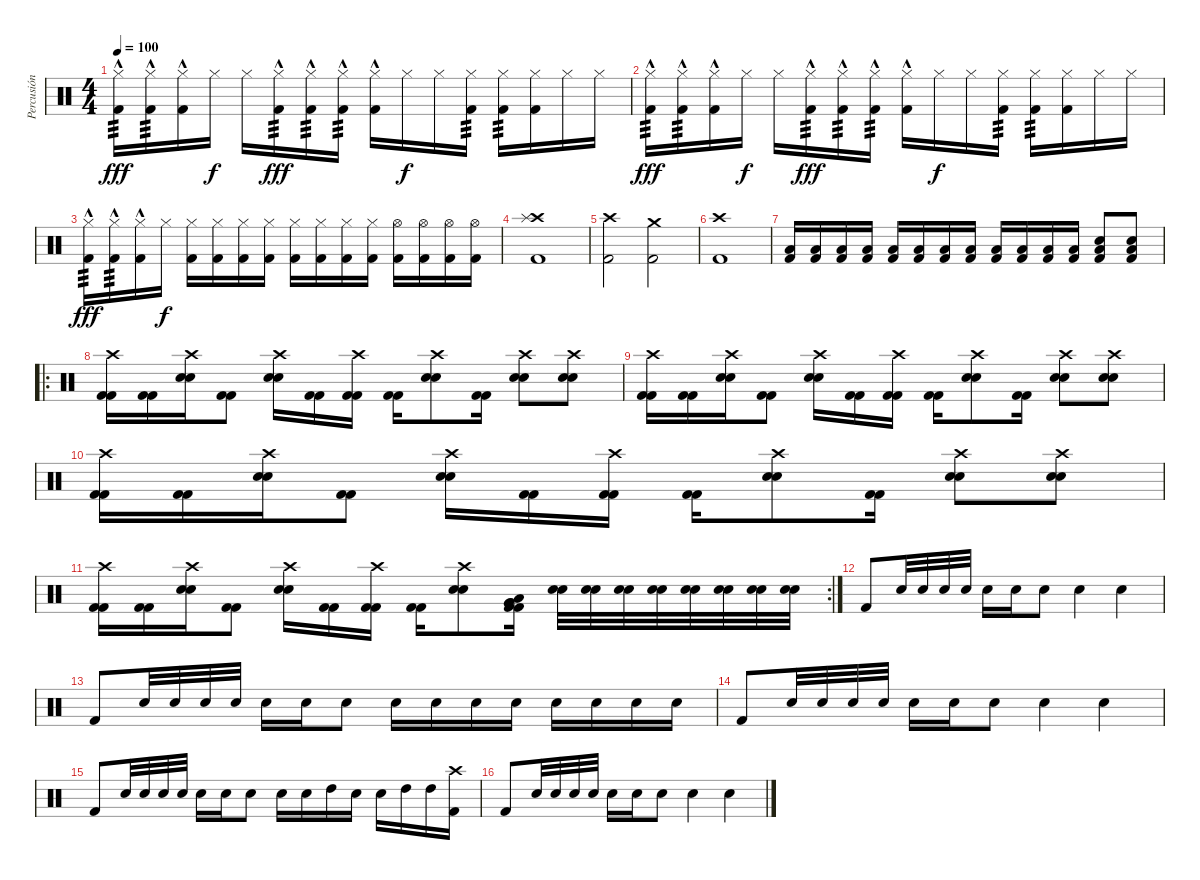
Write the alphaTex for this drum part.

\track ("Percusión" "Percusión") {instrument percussion}
\staff {score}
\articulation defaults
\ts (4 4)
\tempo 100
\clef neutral
\ks c
("Hi-Hat (closed)" "Kick (hit) 2"{hac}).16{tp 3 dy fff} ("Hi-Hat (closed)" "Kick (hit) 2"{hac}).16{tp 3} ("Hi-Hat (closed)" "Kick (hit) 2"{hac}).16 "Hi-Hat (closed)".16{dy f} "Hi-Hat (closed)".16 ("Hi-Hat (closed)" "Kick (hit) 2"{hac}).16{tp 3 dy fff} ("Hi-Hat (closed)" "Kick (hit) 2"{hac}).16{tp 3} ("Hi-Hat (closed)" "Kick (hit) 2"{hac}).16{tp 3} ("Hi-Hat (closed)" "Kick (hit) 2"{hac}).16 "Hi-Hat (closed)".16{dy f} "Hi-Hat (closed)".16 ("Hi-Hat (closed)" "Kick (hit) 2").16{tp 3} ("Hi-Hat (closed)" "Kick (hit) 2").16{tp 3} ("Hi-Hat (closed)" "Kick (hit) 2").16 "Hi-Hat (closed)".16 "Hi-Hat (closed)".16 |
("Hi-Hat (closed)" "Kick (hit) 2"{hac}).16{tp 3 dy fff} ("Hi-Hat (closed)" "Kick (hit) 2"{hac}).16{tp 3} ("Hi-Hat (closed)" "Kick (hit) 2"{hac}).16 "Hi-Hat (closed)".16{dy f} "Hi-Hat (closed)".16 ("Hi-Hat (closed)" "Kick (hit) 2"{hac}).16{tp 3 dy fff} ("Hi-Hat (closed)" "Kick (hit) 2"{hac}).16{tp 3} ("Hi-Hat (closed)" "Kick (hit) 2"{hac}).16{tp 3} ("Hi-Hat (closed)" "Kick (hit) 2"{hac}).16 "Hi-Hat (closed)".16{dy f} "Hi-Hat (closed)".16 ("Hi-Hat (closed)" "Kick (hit) 2").16{tp 3} ("Hi-Hat (closed)" "Kick (hit) 2").16{tp 3} ("Hi-Hat (closed)" "Kick (hit) 2").16 "Hi-Hat (closed)".16 "Hi-Hat (closed)".16 |
("Hi-Hat (closed)" "Kick (hit) 2"{hac}).16{tp 3 dy fff} ("Hi-Hat (closed)" "Kick (hit) 2"{hac}).16{tp 3} ("Hi-Hat (closed)" "Kick (hit) 2"{hac}).16 "Hi-Hat (closed)".16{dy f} ("Hi-Hat (closed)" "Kick (hit) 2").16 ("Hi-Hat (closed)" "Kick (hit) 2").16 ("Hi-Hat (closed)" "Kick (hit) 2").16 ("Hi-Hat (closed)" "Kick (hit) 2").16 ("Hi-Hat (closed)" "Kick (hit) 2").16 ("Hi-Hat (closed)" "Kick (hit) 2").16 ("Hi-Hat (closed)" "Kick (hit) 2").16 ("Hi-Hat (closed)" "Kick (hit) 2").16 ("Hi-Hat (open)" "Kick (hit) 2").16 ("Hi-Hat (open)" "Kick (hit) 2").16 ("Hi-Hat (open)" "Kick (hit) 2").16 ("Hi-Hat (open)" "Kick (hit) 2").16 |
("Crash high (hit)" "Splash (hit)" "Kick (hit) 2").1 |
("Crash high (hit)" "Kick (hit) 2").2 ("Crash medium (hit)" "Kick (hit) 2").2 |
("Crash high (hit)" "Kick (hit) 2").1 |
("Low Floor Tom (hit)" "Kick (hit) 2").16 ("Low Floor Tom (hit)" "Kick (hit) 2").16 ("Low Floor Tom (hit)" "Kick (hit) 2").16 ("Low Floor Tom (hit)" "Kick (hit) 2").16 ("Low Floor Tom (hit)" "Kick (hit) 2").16 ("Low Floor Tom (hit)" "Kick (hit) 2").16 ("Low Floor Tom (hit)" "Kick (hit) 2").16 ("Low Floor Tom (hit)" "Kick (hit) 2").16 ("Low Floor Tom (hit)" "Kick (hit) 2").16 ("Low Floor Tom (hit)" "Kick (hit) 2").16 ("Low Floor Tom (hit)" "Kick (hit) 2").16 ("Low Floor Tom (hit)" "Kick (hit) 2").16 ("Electric Snare (hit)" "Low Floor Tom (hit)" "Kick (hit) 2").8 ("Electric Snare (hit)" "Low Floor Tom (hit)" "Kick (hit) 2").8 |
\ro
("Crash high (hit)" "Kick (hit) 2" "Kick (hit) 2").16 ("Kick (hit) 2" "Kick (hit) 2").16 ("Crash high (hit)" "Electric Snare (hit)" "Electric Snare (hit)").16 ("Kick (hit) 2" "Kick (hit) 2").8 ("Crash high (hit)" "Electric Snare (hit)" "Electric Snare (hit)").16 ("Kick (hit) 2" "Kick (hit) 2").16 ("Crash high (hit)" "Kick (hit) 2" "Kick (hit) 2").16 ("Kick (hit) 2" "Kick (hit) 2").16 ("Crash high (hit)" "Electric Snare (hit)" "Electric Snare (hit)").8 ("Kick (hit) 2" "Kick (hit) 2").16 ("Crash high (hit)" "Electric Snare (hit)" "Electric Snare (hit)").8 ("Crash high (hit)" "Electric Snare (hit)" "Electric Snare (hit)").8 |
("Crash high (hit)" "Kick (hit) 2" "Kick (hit) 2").16 ("Kick (hit) 2" "Kick (hit) 2").16 ("Crash high (hit)" "Electric Snare (hit)" "Electric Snare (hit)").16 ("Kick (hit) 2" "Kick (hit) 2").8 ("Crash high (hit)" "Electric Snare (hit)" "Electric Snare (hit)").16 ("Kick (hit) 2" "Kick (hit) 2").16 ("Crash high (hit)" "Kick (hit) 2" "Kick (hit) 2").16 ("Kick (hit) 2" "Kick (hit) 2").16 ("Crash high (hit)" "Electric Snare (hit)" "Electric Snare (hit)").8 ("Kick (hit) 2" "Kick (hit) 2").16 ("Crash high (hit)" "Electric Snare (hit)" "Electric Snare (hit)").8 ("Crash high (hit)" "Electric Snare (hit)" "Electric Snare (hit)").8 |
("Crash high (hit)" "Kick (hit) 2" "Kick (hit) 2").16 ("Kick (hit) 2" "Kick (hit) 2").16 ("Crash high (hit)" "Electric Snare (hit)" "Electric Snare (hit)").16 ("Kick (hit) 2" "Kick (hit) 2").8 ("Crash high (hit)" "Electric Snare (hit)" "Electric Snare (hit)").16 ("Kick (hit) 2" "Kick (hit) 2").16 ("Crash high (hit)" "Kick (hit) 2" "Kick (hit) 2").16 ("Kick (hit) 2" "Kick (hit) 2").16 ("Crash high (hit)" "Electric Snare (hit)" "Electric Snare (hit)").8 ("Kick (hit) 2" "Kick (hit) 2").16 ("Crash high (hit)" "Electric Snare (hit)" "Electric Snare (hit)").8 ("Crash high (hit)" "Electric Snare (hit)" "Electric Snare (hit)").8 |
\rc 2
("Crash high (hit)" "Kick (hit) 2" "Kick (hit) 2").16 ("Kick (hit) 2" "Kick (hit) 2").16 ("Crash high (hit)" "Electric Snare (hit)" "Electric Snare (hit)").16 ("Kick (hit) 2" "Kick (hit) 2").8 ("Crash high (hit)" "Electric Snare (hit)" "Electric Snare (hit)").16 ("Kick (hit) 2" "Kick (hit) 2").16 ("Crash high (hit)" "Kick (hit) 2" "Kick (hit) 2").16 ("Kick (hit) 2" "Kick (hit) 2").16 ("Crash high (hit)" "Electric Snare (hit)" "Electric Snare (hit)").8 ("Low Floor Tom (hit)" "Kick (hit) 2" "Kick (hit) 2" "Very Low Tom (hit)" "Very Low Tom (hit)").16 ("Electric Snare (hit)" "Electric Snare (hit)").32 ("Electric Snare (hit)" "Electric Snare (hit)").32 ("Electric Snare (hit)" "Electric Snare (hit)").32 ("Electric Snare (hit)" "Electric Snare (hit)").32 ("Electric Snare (hit)" "Electric Snare (hit)").32 ("Electric Snare (hit)" "Electric Snare (hit)").32 ("Electric Snare (hit)" "Electric Snare (hit)").32 ("Electric Snare (hit)" "Electric Snare (hit)").32 |
"Kick (hit) 2".8 "Snare (hit) 2".32 "Snare (hit) 2".32 "Snare (hit) 2".32 "Snare (hit) 2".32 "Snare (hit) 2".16 "Snare (hit) 2".16 "Snare (hit) 2".8 "Snare (hit) 2".4 "Snare (hit) 2".4 |
"Kick (hit) 2".8 "Snare (hit) 2".32 "Snare (hit) 2".32 "Snare (hit) 2".32 "Snare (hit) 2".32 "Snare (hit) 2".16 "Snare (hit) 2".16 "Snare (hit) 2".8 "Snare (hit) 2".16 "Snare (hit) 2".16 "Snare (hit) 2".16 "Snare (hit) 2".16 "Snare (hit) 2".16 "Snare (hit) 2".16 "Snare (hit) 2".16 "Snare (hit) 2".16 |
"Kick (hit) 2".8 "Snare (hit) 2".32 "Snare (hit) 2".32 "Snare (hit) 2".32 "Snare (hit) 2".32 "Snare (hit) 2".16 "Snare (hit) 2".16 "Snare (hit) 2".8 "Snare (hit) 2".4 "Snare (hit) 2".4 |
"Kick (hit) 2".8 "Snare (hit) 2".32 "Snare (hit) 2".32 "Snare (hit) 2".32 "Snare (hit) 2".32 "Snare (hit) 2".16 "Snare (hit) 2".16 "Snare (hit) 2".8 "Snare (hit) 2".16 "Snare (hit) 2".16 "High Tom (hit)".16 "Snare (hit) 2".16 "Snare (hit) 2".16 "High Tom (hit)".16 "High Tom (hit)".16 ("Crash high (hit)" "Kick (hit) 2").16 |
"Kick (hit) 2".8 "Snare (hit) 2".32 "Snare (hit) 2".32 "Snare (hit) 2".32 "Snare (hit) 2".32 "Snare (hit) 2".16 "Snare (hit) 2".16 "Snare (hit) 2".8 "Snare (hit) 2".4 "Snare (hit) 2".4
